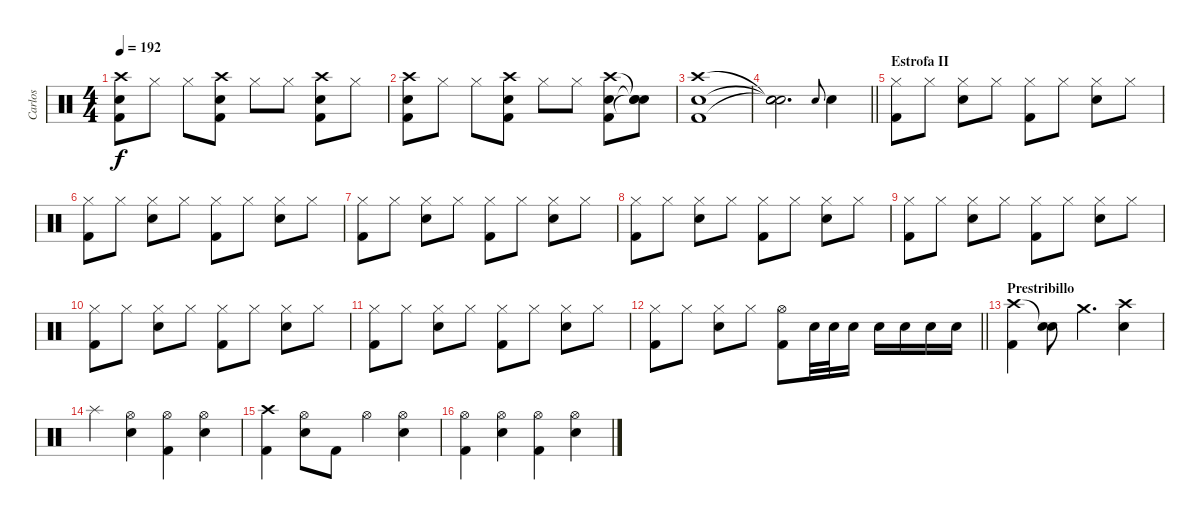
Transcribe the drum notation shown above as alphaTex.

\track ("Carlos" "Carlos") {instrument percussion}
\staff {score}
\articulation defaults
\ts (4 4)
\tempo 192
\clef neutral
\ks c
("Crash high (hit)" "Kick (hit) 2" "Snare (hit) 2").8{dy f} "Hi-Hat (closed)".8 "Hi-Hat (closed)".8 ("Crash high (hit)" "Kick (hit) 2" "Snare (hit) 2").8 "Hi-Hat (closed)".8 "Hi-Hat (closed)".8 ("Crash high (hit)" "Kick (hit) 2" "Snare (hit) 2").8 "Hi-Hat (closed)".8 |
("Crash high (hit)" "Kick (hit) 2" "Snare (hit) 2").8 "Hi-Hat (closed)".8 "Hi-Hat (closed)".8 ("Crash high (hit)" "Kick (hit) 2" "Snare (hit) 2").8 "Hi-Hat (closed)".8 "Hi-Hat (closed)".8 ("Crash high (hit)" "Kick (hit) 2" "Snare (hit) 2").8 ("Snare (hit)"{t} "Snare (hit)"{t} "Snare (hit)"{t}).8 |
("Crash high (hit)" "Kick (hit) 2" "Snare (hit) 2").1 |
\barLineRight lightlight
("Snare (hit)"{t} "Snare (hit)"{t} "Snare (hit)"{t}).2{d} "Snare (hit) 2".8{gr onbeat} "Snare (hit) 2".4 |
\section ("" "Estrofa II")
("Hi-Hat (closed)" "Kick (hit) 2").8 "Hi-Hat (closed)".8 ("Hi-Hat (closed)" "Snare (hit) 2").8 "Hi-Hat (closed)".8 ("Hi-Hat (closed)" "Kick (hit) 2").8 "Hi-Hat (closed)".8 ("Hi-Hat (closed)" "Snare (hit) 2").8 "Hi-Hat (closed)".8 |
("Hi-Hat (closed)" "Kick (hit) 2").8 "Hi-Hat (closed)".8 ("Hi-Hat (closed)" "Snare (hit) 2").8 "Hi-Hat (closed)".8 ("Hi-Hat (closed)" "Kick (hit) 2").8 "Hi-Hat (closed)".8 ("Hi-Hat (closed)" "Snare (hit) 2").8 "Hi-Hat (closed)".8 |
("Hi-Hat (closed)" "Kick (hit) 2").8 "Hi-Hat (closed)".8 ("Hi-Hat (closed)" "Snare (hit) 2").8 "Hi-Hat (closed)".8 ("Hi-Hat (closed)" "Kick (hit) 2").8 "Hi-Hat (closed)".8 ("Hi-Hat (closed)" "Snare (hit) 2").8 "Hi-Hat (closed)".8 |
("Hi-Hat (closed)" "Kick (hit) 2").8 "Hi-Hat (closed)".8 ("Hi-Hat (closed)" "Snare (hit) 2").8 "Hi-Hat (closed)".8 ("Hi-Hat (closed)" "Kick (hit) 2").8 "Hi-Hat (closed)".8 ("Hi-Hat (closed)" "Snare (hit) 2").8 "Hi-Hat (closed)".8 |
("Hi-Hat (closed)" "Kick (hit) 2").8 "Hi-Hat (closed)".8 ("Hi-Hat (closed)" "Snare (hit) 2").8 "Hi-Hat (closed)".8 ("Hi-Hat (closed)" "Kick (hit) 2").8 "Hi-Hat (closed)".8 ("Hi-Hat (closed)" "Snare (hit) 2").8 "Hi-Hat (closed)".8 |
("Hi-Hat (closed)" "Kick (hit) 2").8 "Hi-Hat (closed)".8 ("Hi-Hat (closed)" "Snare (hit) 2").8 "Hi-Hat (closed)".8 ("Hi-Hat (closed)" "Kick (hit) 2").8 "Hi-Hat (closed)".8 ("Hi-Hat (closed)" "Snare (hit) 2").8 "Hi-Hat (closed)".8 |
("Hi-Hat (closed)" "Kick (hit) 2").8 "Hi-Hat (closed)".8 ("Hi-Hat (closed)" "Snare (hit) 2").8 "Hi-Hat (closed)".8 ("Hi-Hat (closed)" "Kick (hit) 2").8 "Hi-Hat (closed)".8 ("Hi-Hat (closed)" "Snare (hit) 2").8 "Hi-Hat (closed)".8 |
\barLineRight lightlight
("Hi-Hat (closed)" "Kick (hit) 2").8 "Hi-Hat (closed)".8 ("Hi-Hat (closed)" "Snare (hit) 2").8 "Hi-Hat (closed)".8 ("Hi-Hat (open)" "Kick (hit) 2").8 "Snare (hit) 2".32 "Snare (hit) 2".32 "Snare (hit) 2".16 "Snare (hit) 2".16 "Snare (hit) 2".16 "Snare (hit) 2".16 "Snare (hit) 2".16 |
\section ("" "Prestribillo")
("Crash high (hit)" "Kick (hit) 2").4 ("Snare (hit)"{t} "Snare (hit) 2").8 "Crash medium (hit)".4{d} ("Crash high (hit)" "Snare (hit) 2").4 |
"Splash (hit)".4 ("Hi-Hat (open)" "Snare (hit) 2").4 ("Hi-Hat (open)" "Kick (hit) 2").4 ("Hi-Hat (open)" "Snare (hit) 2").4 |
("Crash high (hit)" "Kick (hit) 2").4 ("Hi-Hat (open)" "Snare (hit) 2").8 "Kick (hit) 2".8 "Hi-Hat (open)".4 ("Hi-Hat (open)" "Snare (hit) 2").4 |
("Hi-Hat (open)" "Kick (hit) 2").4 ("Hi-Hat (open)" "Snare (hit) 2").4 ("Hi-Hat (open)" "Kick (hit) 2").4 ("Hi-Hat (open)" "Snare (hit) 2").4
